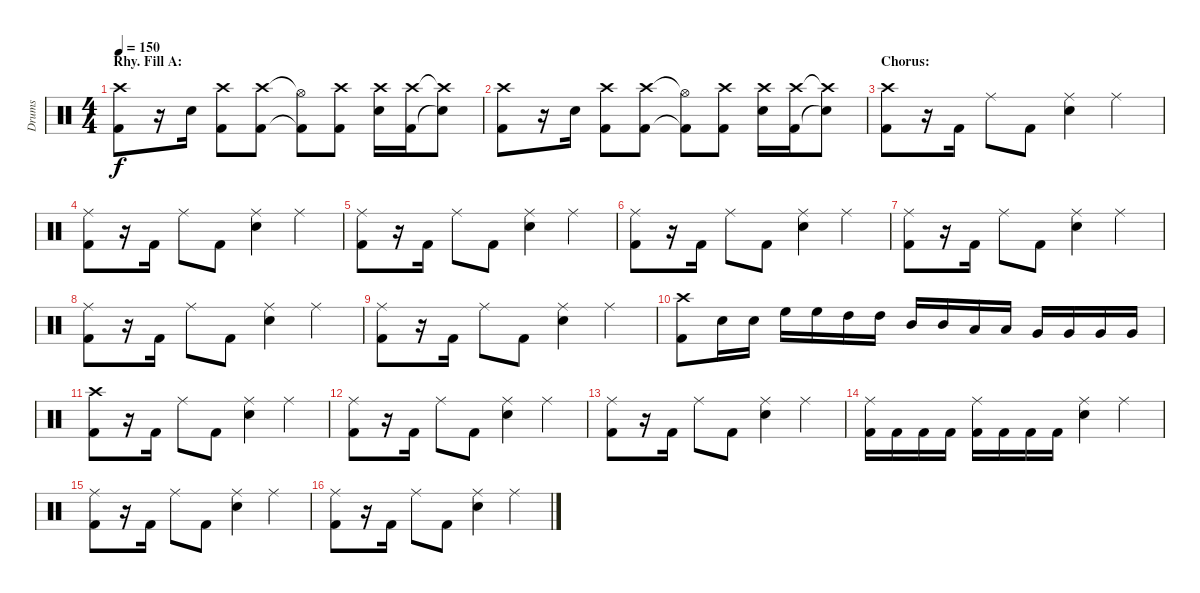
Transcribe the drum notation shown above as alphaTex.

\track ("Drums" "Drums") {instrument percussion}
\staff {score}
\articulation defaults
\ts (4 4)
\section ("" "Rhy. Fill A:")
\tempo 150
\clef neutral
\ks c
("Crash high (hit)" "Kick (hit) 2").8{dy f} r.16 "Electric Snare (hit)".16 ("Crash high (hit)" "Kick (hit) 2").8 ("Crash high (hit)" "Kick (hit) 2").8 ("Hi-Hat (open)"{t} "Kick (hit) 2"{t}).8 ("Crash high (hit)" "Kick (hit) 2").8 ("Crash high (hit)" "Electric Snare (hit)").16 ("Crash high (hit)" "Kick (hit) 2").16 ("Crash high (hit)"{t} "Snare (hit)"{t}).8 |
("Crash high (hit)" "Kick (hit) 2").8 r.16 "Electric Snare (hit)".16 ("Crash high (hit)" "Kick (hit) 2").8 ("Crash high (hit)" "Kick (hit) 2").8 ("Hi-Hat (open)"{t} "Kick (hit) 2"{t}).8 ("Crash high (hit)" "Kick (hit) 2").8 ("Crash high (hit)" "Electric Snare (hit)").16 ("Crash high (hit)" "Kick (hit) 2").16 ("Crash high (hit)"{t} "Snare (hit)"{t}).8 |
\section ("" "Chorus:")
("Crash high (hit)" "Kick (hit) 2").8 r.16 "Kick (hit) 2".16 "Ride (middle)".8 "Kick (hit) 2".8 ("Ride (middle)" "Electric Snare (hit)").4 "Ride (middle)".4 |
("Ride (middle)" "Kick (hit) 2").8 r.16 "Kick (hit) 2".16 "Ride (middle)".8 "Kick (hit) 2".8 ("Ride (middle)" "Electric Snare (hit)").4 "Ride (middle)".4 |
("Ride (middle)" "Kick (hit) 2").8 r.16 "Kick (hit) 2".16 "Ride (middle)".8 "Kick (hit) 2".8 ("Ride (middle)" "Electric Snare (hit)").4 "Ride (middle)".4 |
("Ride (middle)" "Kick (hit) 2").8 r.16 "Kick (hit) 2".16 "Ride (middle)".8 "Kick (hit) 2".8 ("Ride (middle)" "Electric Snare (hit)").4 "Ride (middle)".4 |
("Ride (middle)" "Kick (hit) 2").8 r.16 "Kick (hit) 2".16 "Ride (middle)".8 "Kick (hit) 2".8 ("Ride (middle)" "Electric Snare (hit)").4 "Ride (middle)".4 |
("Ride (middle)" "Kick (hit) 2").8 r.16 "Kick (hit) 2".16 "Ride (middle)".8 "Kick (hit) 2".8 ("Ride (middle)" "Electric Snare (hit)").4 "Ride (middle)".4 |
("Ride (middle)" "Kick (hit) 2").8 r.16 "Kick (hit) 2".16 "Ride (middle)".8 "Kick (hit) 2".8 ("Ride (middle)" "Electric Snare (hit)").4 "Ride (middle)".4 |
("Crash high (hit)" "Kick (hit) 2").8 "Electric Snare (hit)".16 "Electric Snare (hit)".16 "High Floor Tom (hit)".16 "High Floor Tom (hit)".16 "High Tom (hit)".16 "High Tom (hit)".16 "Mid Tom (hit)".16 "Mid Tom (hit)".16 "Low Tom (hit)".16 "Low Tom (hit)".16 "Very Low Tom (hit)".16 "Very Low Tom (hit)".16 "Very Low Tom (hit)".16 "Very Low Tom (hit)".16 |
("Crash high (hit)" "Kick (hit) 2").8 r.16 "Kick (hit) 2".16 "Ride (middle)".8 "Kick (hit) 2".8 ("Ride (middle)" "Electric Snare (hit)").4 "Ride (middle)".4 |
("Ride (middle)" "Kick (hit) 2").8 r.16 "Kick (hit) 2".16 "Ride (middle)".8 "Kick (hit) 2".8 ("Ride (middle)" "Electric Snare (hit)").4 "Ride (middle)".4 |
("Ride (middle)" "Kick (hit) 2").8 r.16 "Kick (hit) 2".16 "Ride (middle)".8 "Kick (hit) 2".8 ("Ride (middle)" "Electric Snare (hit)").4 "Ride (middle)".4 |
("Ride (middle)" "Kick (hit) 2").16 "Kick (hit) 2".16 "Kick (hit) 2".16 "Kick (hit) 2".16 ("Ride (middle)" "Kick (hit) 2").16 "Kick (hit) 2".16 "Kick (hit) 2".16 "Kick (hit) 2".16 ("Ride (middle)" "Electric Snare (hit)").4 "Ride (middle)".4 |
("Ride (middle)" "Kick (hit) 2").8 r.16 "Kick (hit) 2".16 "Ride (middle)".8 "Kick (hit) 2".8 ("Ride (middle)" "Electric Snare (hit)").4 "Ride (middle)".4 |
("Ride (middle)" "Kick (hit) 2").8 r.16 "Kick (hit) 2".16 "Ride (middle)".8 "Kick (hit) 2".8 ("Ride (middle)" "Electric Snare (hit)").4 "Ride (middle)".4
